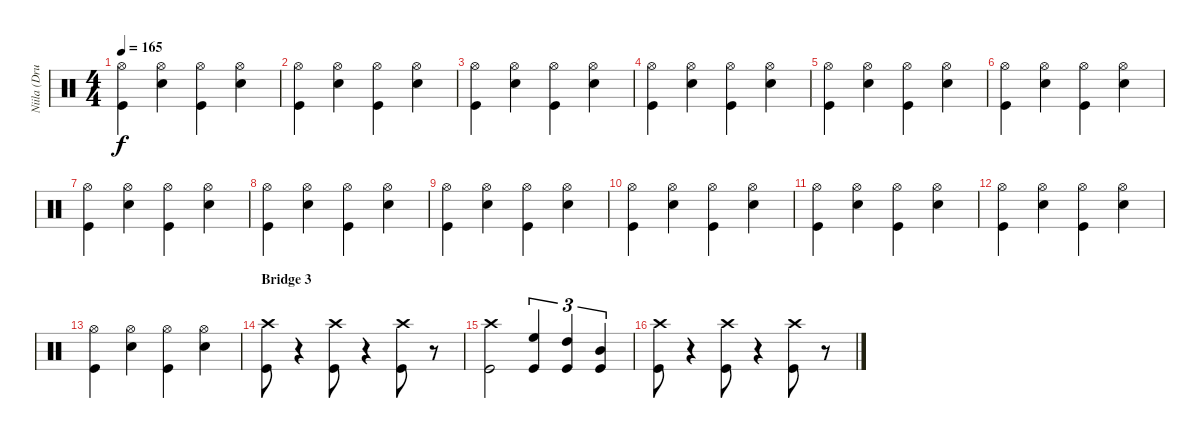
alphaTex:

\track ("Niila (Drums)" "Niila (Dru") {instrument percussion}
\staff {score}
\articulation defaults
\ts (4 4)
\tempo 165
\clef neutral
\ks c
("Hi-Hat (open)" "Kick (hit)").4{dy f} ("Hi-Hat (open)" "Snare (hit) 2").4 ("Hi-Hat (open)" "Kick (hit)").4 ("Hi-Hat (open)" "Snare (hit) 2").4 |
("Hi-Hat (open)" "Kick (hit)").4 ("Hi-Hat (open)" "Snare (hit) 2").4 ("Hi-Hat (open)" "Kick (hit)").4 ("Hi-Hat (open)" "Snare (hit) 2").4 |
("Hi-Hat (open)" "Kick (hit)").4 ("Hi-Hat (open)" "Snare (hit) 2").4 ("Hi-Hat (open)" "Kick (hit)").4 ("Hi-Hat (open)" "Snare (hit) 2").4 |
("Hi-Hat (open)" "Kick (hit)").4 ("Hi-Hat (open)" "Snare (hit) 2").4 ("Hi-Hat (open)" "Kick (hit)").4 ("Hi-Hat (open)" "Snare (hit) 2").4 |
("Hi-Hat (open)" "Kick (hit)").4 ("Hi-Hat (open)" "Snare (hit) 2").4 ("Hi-Hat (open)" "Kick (hit)").4 ("Hi-Hat (open)" "Snare (hit) 2").4 |
("Hi-Hat (open)" "Kick (hit)").4 ("Hi-Hat (open)" "Snare (hit) 2").4 ("Hi-Hat (open)" "Kick (hit)").4 ("Hi-Hat (open)" "Snare (hit) 2").4 |
("Hi-Hat (open)" "Kick (hit)").4 ("Hi-Hat (open)" "Snare (hit) 2").4 ("Hi-Hat (open)" "Kick (hit)").4 ("Hi-Hat (open)" "Snare (hit) 2").4 |
("Hi-Hat (open)" "Kick (hit)").4 ("Hi-Hat (open)" "Snare (hit) 2").4 ("Hi-Hat (open)" "Kick (hit)").4 ("Hi-Hat (open)" "Snare (hit) 2").4 |
("Hi-Hat (open)" "Kick (hit)").4 ("Hi-Hat (open)" "Snare (hit) 2").4 ("Hi-Hat (open)" "Kick (hit)").4 ("Hi-Hat (open)" "Snare (hit) 2").4 |
("Hi-Hat (open)" "Kick (hit)").4 ("Hi-Hat (open)" "Snare (hit) 2").4 ("Hi-Hat (open)" "Kick (hit)").4 ("Hi-Hat (open)" "Snare (hit) 2").4 |
("Hi-Hat (open)" "Kick (hit)").4 ("Hi-Hat (open)" "Snare (hit) 2").4 ("Hi-Hat (open)" "Kick (hit)").4 ("Hi-Hat (open)" "Snare (hit) 2").4 |
("Hi-Hat (open)" "Kick (hit)").4 ("Hi-Hat (open)" "Snare (hit) 2").4 ("Hi-Hat (open)" "Kick (hit)").4 ("Hi-Hat (open)" "Snare (hit) 2").4 |
("Hi-Hat (open)" "Kick (hit)").4 ("Hi-Hat (open)" "Snare (hit) 2").4 ("Hi-Hat (open)" "Kick (hit)").4 ("Hi-Hat (open)" "Snare (hit) 2").4 |
\section ("" "Bridge 3")
("Crash high (hit)" "Kick (hit)").8 r.4 ("Crash high (hit)" "Kick (hit)").8 r.4 ("Crash high (hit)" "Kick (hit)").8 r.8 |
("Crash high (hit)" "Kick (hit)").2 ("High Floor Tom (hit)" "Kick (hit)").4{tu (3 2)} ("High Tom (hit)" "Kick (hit)").4{tu (3 2)} ("Mid Tom (hit)" "Kick (hit)").4{tu (3 2)} |
("Crash high (hit)" "Kick (hit)").8 r.4 ("Crash high (hit)" "Kick (hit)").8 r.4 ("Crash high (hit)" "Kick (hit)").8 r.8
